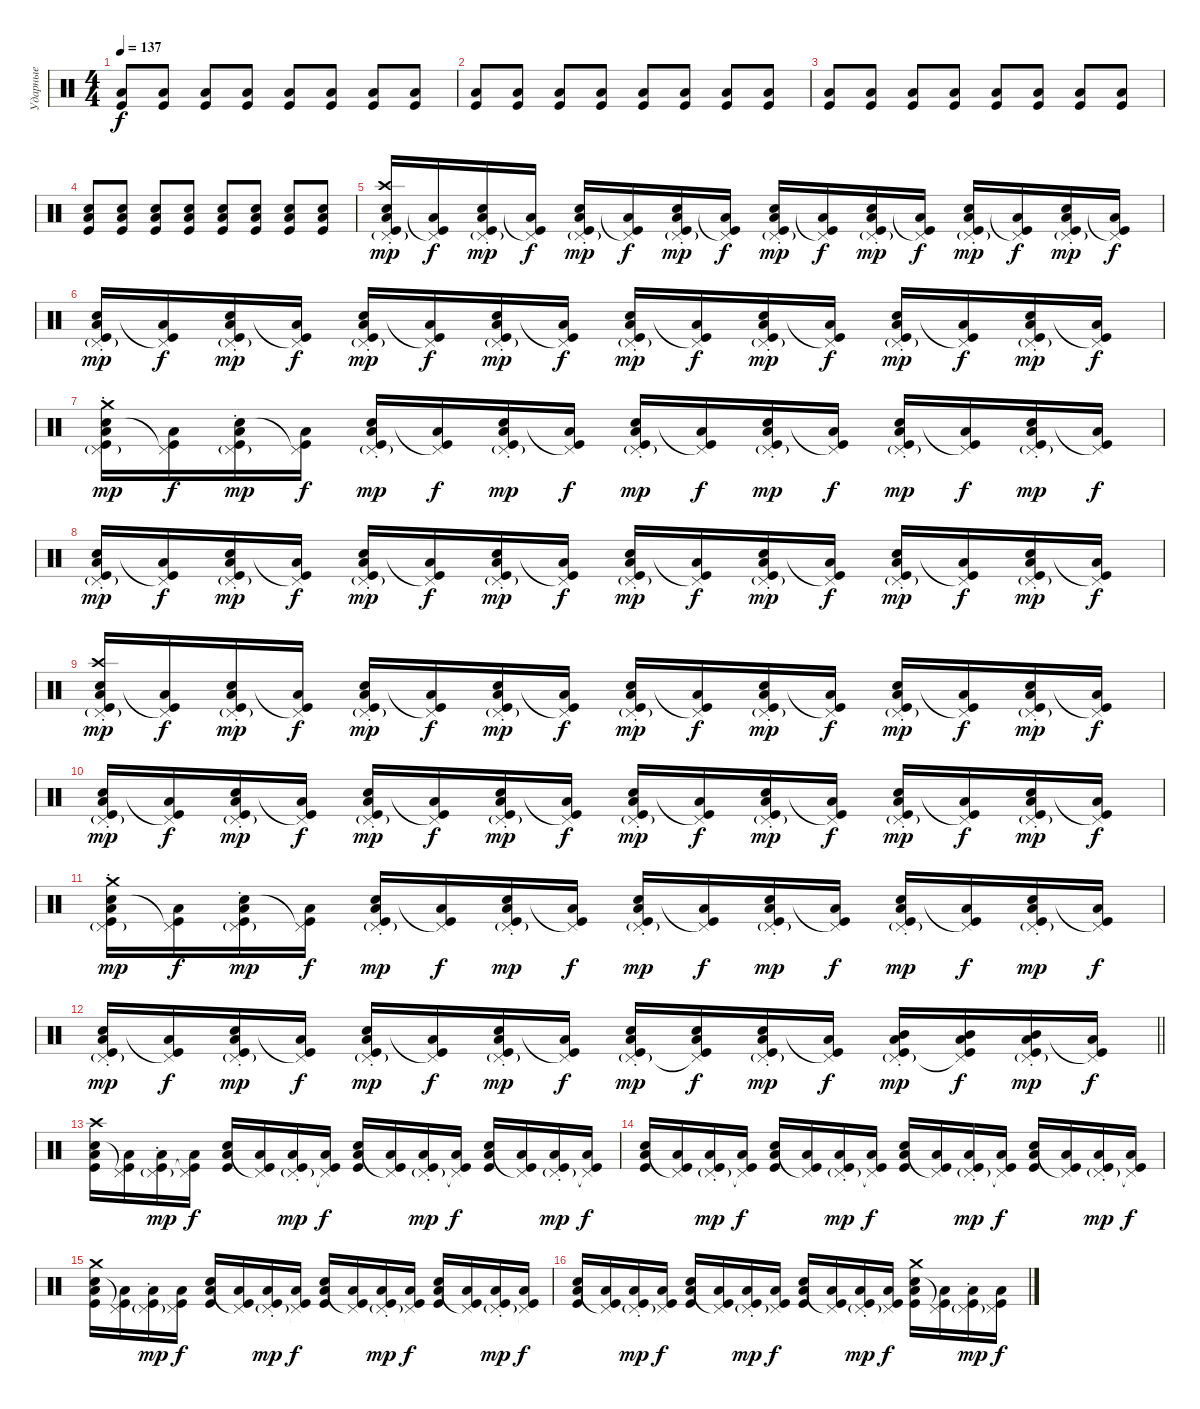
\track ("Ударные" "Ударные") {instrument percussion}
\staff {score}
\articulation defaults
\ts (4 4)
\tempo 137
\clef neutral
\ks c
("Kick (hit)" "Low Tom (hit)").8{dy f} ("Kick (hit)" "Low Tom (hit)").8 ("Kick (hit)" "Low Tom (hit)").8 ("Kick (hit)" "Low Tom (hit)").8 ("Kick (hit)" "Low Tom (hit)").8 ("Kick (hit)" "Low Tom (hit)").8 ("Kick (hit)" "Low Tom (hit)").8 ("Kick (hit)" "Low Tom (hit)").8 |
("Kick (hit)" "Low Tom (hit)").8 ("Kick (hit)" "Low Tom (hit)").8 ("Kick (hit)" "Low Tom (hit)").8 ("Kick (hit)" "Low Tom (hit)").8 ("Kick (hit)" "Low Tom (hit)").8 ("Kick (hit)" "Low Tom (hit)").8 ("Kick (hit)" "Low Tom (hit)").8 ("Kick (hit)" "Low Tom (hit)").8 |
("Kick (hit)" "Low Tom (hit)").8 ("Kick (hit)" "Low Tom (hit)").8 ("Kick (hit)" "Low Tom (hit)").8 ("Kick (hit)" "Low Tom (hit)").8 ("Kick (hit)" "Low Tom (hit)").8 ("Kick (hit)" "Low Tom (hit)").8 ("Kick (hit)" "Low Tom (hit)").8 ("Kick (hit)" "Low Tom (hit)").8 |
("Kick (hit)" "Low Tom (hit)" "Electric Snare (hit)").8 ("Kick (hit)" "Low Tom (hit)" "Electric Snare (hit)").8 ("Kick (hit)" "Low Tom (hit)" "Electric Snare (hit)").8 ("Kick (hit)" "Low Tom (hit)" "Electric Snare (hit)").8 ("Kick (hit)" "Low Tom (hit)" "Electric Snare (hit)").8 ("Kick (hit)" "Low Tom (hit)" "Electric Snare (hit)").8 ("Kick (hit)" "Low Tom (hit)" "Electric Snare (hit)").8 ("Kick (hit)" "Low Tom (hit)" "Electric Snare (hit)").8 |
("Kick (hit)" "Low Tom (hit)" "Electric Snare (hit)" "Crash high (hit)" "Pedal Hi-Hat (hit)"{g st}).16{dy mp} ("Kick (hit)" "Low Tom (hit)" "Pedal Hi-Hat (hit)"{t}).16{dy f} ("Kick (hit)" "Low Tom (hit)" "Electric Snare (hit)" "Pedal Hi-Hat (hit)"{g st}).16{dy mp} ("Kick (hit)" "Low Tom (hit)" "Pedal Hi-Hat (hit)"{t}).16{dy f} ("Kick (hit)" "Low Tom (hit)" "Electric Snare (hit)" "Pedal Hi-Hat (hit)"{g st}).16{dy mp} ("Kick (hit)" "Low Tom (hit)" "Pedal Hi-Hat (hit)"{t}).16{dy f} ("Kick (hit)" "Low Tom (hit)" "Electric Snare (hit)" "Pedal Hi-Hat (hit)"{g st}).16{dy mp} ("Kick (hit)" "Low Tom (hit)" "Pedal Hi-Hat (hit)"{t}).16{dy f} ("Kick (hit)" "Low Tom (hit)" "Electric Snare (hit)" "Pedal Hi-Hat (hit)"{g st}).16{dy mp} ("Kick (hit)" "Low Tom (hit)" "Pedal Hi-Hat (hit)"{t}).16{dy f} ("Kick (hit)" "Low Tom (hit)" "Electric Snare (hit)" "Pedal Hi-Hat (hit)"{g st}).16{dy mp} ("Kick (hit)" "Low Tom (hit)" "Pedal Hi-Hat (hit)"{t}).16{dy f} ("Kick (hit)" "Low Tom (hit)" "Electric Snare (hit)" "Pedal Hi-Hat (hit)"{g st}).16{dy mp} ("Kick (hit)" "Low Tom (hit)" "Pedal Hi-Hat (hit)"{t}).16{dy f} ("Kick (hit)" "Low Tom (hit)" "Electric Snare (hit)" "Pedal Hi-Hat (hit)"{g st}).16{dy mp} ("Kick (hit)" "Low Tom (hit)" "Pedal Hi-Hat (hit)"{t}).16{dy f} |
("Kick (hit)" "Low Tom (hit)" "Electric Snare (hit)" "Pedal Hi-Hat (hit)"{g st}).16{dy mp} ("Kick (hit)" "Low Tom (hit)" "Pedal Hi-Hat (hit)"{t}).16{dy f} ("Kick (hit)" "Low Tom (hit)" "Electric Snare (hit)" "Pedal Hi-Hat (hit)"{g st}).16{dy mp} ("Kick (hit)" "Low Tom (hit)" "Pedal Hi-Hat (hit)"{t}).16{dy f} ("Kick (hit)" "Low Tom (hit)" "Electric Snare (hit)" "Pedal Hi-Hat (hit)"{g st}).16{dy mp} ("Kick (hit)" "Low Tom (hit)" "Pedal Hi-Hat (hit)"{t}).16{dy f} ("Kick (hit)" "Low Tom (hit)" "Electric Snare (hit)" "Pedal Hi-Hat (hit)"{g st}).16{dy mp} ("Kick (hit)" "Low Tom (hit)" "Pedal Hi-Hat (hit)"{t}).16{dy f} ("Kick (hit)" "Low Tom (hit)" "Electric Snare (hit)" "Pedal Hi-Hat (hit)"{g st}).16{dy mp} ("Kick (hit)" "Low Tom (hit)" "Pedal Hi-Hat (hit)"{t}).16{dy f} ("Kick (hit)" "Low Tom (hit)" "Electric Snare (hit)" "Pedal Hi-Hat (hit)"{g st}).16{dy mp} ("Kick (hit)" "Low Tom (hit)" "Pedal Hi-Hat (hit)"{t}).16{dy f} ("Kick (hit)" "Low Tom (hit)" "Electric Snare (hit)" "Pedal Hi-Hat (hit)"{g st}).16{dy mp} ("Kick (hit)" "Low Tom (hit)" "Pedal Hi-Hat (hit)"{t}).16{dy f} ("Kick (hit)" "Low Tom (hit)" "Electric Snare (hit)" "Pedal Hi-Hat (hit)"{g st}).16{dy mp} ("Kick (hit)" "Low Tom (hit)" "Pedal Hi-Hat (hit)"{t}).16{dy f} |
("Kick (hit)" "Low Tom (hit)" "Electric Snare (hit)" "Crash medium (hit)" "Pedal Hi-Hat (hit)"{g st}).16{dy mp} ("Kick (hit)" "Low Tom (hit)" "Pedal Hi-Hat (hit)"{t}).16{dy f} ("Kick (hit)" "Low Tom (hit)" "Electric Snare (hit)" "Pedal Hi-Hat (hit)"{g st}).16{dy mp} ("Kick (hit)" "Low Tom (hit)" "Pedal Hi-Hat (hit)"{t}).16{dy f} ("Kick (hit)" "Low Tom (hit)" "Electric Snare (hit)" "Pedal Hi-Hat (hit)"{g st}).16{dy mp} ("Kick (hit)" "Low Tom (hit)" "Pedal Hi-Hat (hit)"{t}).16{dy f} ("Kick (hit)" "Low Tom (hit)" "Electric Snare (hit)" "Pedal Hi-Hat (hit)"{g st}).16{dy mp} ("Kick (hit)" "Low Tom (hit)" "Pedal Hi-Hat (hit)"{t}).16{dy f} ("Kick (hit)" "Low Tom (hit)" "Electric Snare (hit)" "Pedal Hi-Hat (hit)"{g st}).16{dy mp} ("Kick (hit)" "Low Tom (hit)" "Pedal Hi-Hat (hit)"{t}).16{dy f} ("Kick (hit)" "Low Tom (hit)" "Electric Snare (hit)" "Pedal Hi-Hat (hit)"{g st}).16{dy mp} ("Kick (hit)" "Low Tom (hit)" "Pedal Hi-Hat (hit)"{t}).16{dy f} ("Kick (hit)" "Low Tom (hit)" "Electric Snare (hit)" "Pedal Hi-Hat (hit)"{g st}).16{dy mp} ("Kick (hit)" "Low Tom (hit)" "Pedal Hi-Hat (hit)"{t}).16{dy f} ("Kick (hit)" "Low Tom (hit)" "Electric Snare (hit)" "Pedal Hi-Hat (hit)"{g st}).16{dy mp} ("Kick (hit)" "Low Tom (hit)" "Pedal Hi-Hat (hit)"{t}).16{dy f} |
("Kick (hit)" "Low Tom (hit)" "Electric Snare (hit)" "Pedal Hi-Hat (hit)"{g st}).16{dy mp} ("Kick (hit)" "Low Tom (hit)" "Pedal Hi-Hat (hit)"{t}).16{dy f} ("Kick (hit)" "Low Tom (hit)" "Electric Snare (hit)" "Pedal Hi-Hat (hit)"{g st}).16{dy mp} ("Kick (hit)" "Low Tom (hit)" "Pedal Hi-Hat (hit)"{t}).16{dy f} ("Kick (hit)" "Low Tom (hit)" "Electric Snare (hit)" "Pedal Hi-Hat (hit)"{g st}).16{dy mp} ("Kick (hit)" "Low Tom (hit)" "Pedal Hi-Hat (hit)"{t}).16{dy f} ("Kick (hit)" "Low Tom (hit)" "Electric Snare (hit)" "Pedal Hi-Hat (hit)"{g st}).16{dy mp} ("Kick (hit)" "Low Tom (hit)" "Pedal Hi-Hat (hit)"{t}).16{dy f} ("Kick (hit)" "Low Tom (hit)" "Electric Snare (hit)" "Pedal Hi-Hat (hit)"{g st}).16{dy mp} ("Kick (hit)" "Low Tom (hit)" "Pedal Hi-Hat (hit)"{t}).16{dy f} ("Kick (hit)" "Low Tom (hit)" "Electric Snare (hit)" "Pedal Hi-Hat (hit)"{g st}).16{dy mp} ("Kick (hit)" "Low Tom (hit)" "Pedal Hi-Hat (hit)"{t}).16{dy f} ("Kick (hit)" "Low Tom (hit)" "Electric Snare (hit)" "Pedal Hi-Hat (hit)"{g st}).16{dy mp} ("Kick (hit)" "Low Tom (hit)" "Pedal Hi-Hat (hit)"{t}).16{dy f} ("Kick (hit)" "Low Tom (hit)" "Electric Snare (hit)" "Pedal Hi-Hat (hit)"{g st}).16{dy mp} ("Kick (hit)" "Low Tom (hit)" "Pedal Hi-Hat (hit)"{t}).16{dy f} |
("Kick (hit)" "Low Tom (hit)" "Electric Snare (hit)" "Crash high (hit)" "Pedal Hi-Hat (hit)"{g st}).16{dy mp} ("Kick (hit)" "Low Tom (hit)" "Pedal Hi-Hat (hit)"{t}).16{dy f} ("Kick (hit)" "Low Tom (hit)" "Electric Snare (hit)" "Pedal Hi-Hat (hit)"{g st}).16{dy mp} ("Kick (hit)" "Low Tom (hit)" "Pedal Hi-Hat (hit)"{t}).16{dy f} ("Kick (hit)" "Low Tom (hit)" "Electric Snare (hit)" "Pedal Hi-Hat (hit)"{g st}).16{dy mp} ("Kick (hit)" "Low Tom (hit)" "Pedal Hi-Hat (hit)"{t}).16{dy f} ("Kick (hit)" "Low Tom (hit)" "Electric Snare (hit)" "Pedal Hi-Hat (hit)"{g st}).16{dy mp} ("Kick (hit)" "Low Tom (hit)" "Pedal Hi-Hat (hit)"{t}).16{dy f} ("Kick (hit)" "Low Tom (hit)" "Electric Snare (hit)" "Pedal Hi-Hat (hit)"{g st}).16{dy mp} ("Kick (hit)" "Low Tom (hit)" "Pedal Hi-Hat (hit)"{t}).16{dy f} ("Kick (hit)" "Low Tom (hit)" "Electric Snare (hit)" "Pedal Hi-Hat (hit)"{g st}).16{dy mp} ("Kick (hit)" "Low Tom (hit)" "Pedal Hi-Hat (hit)"{t}).16{dy f} ("Kick (hit)" "Low Tom (hit)" "Electric Snare (hit)" "Pedal Hi-Hat (hit)"{g st}).16{dy mp} ("Kick (hit)" "Low Tom (hit)" "Pedal Hi-Hat (hit)"{t}).16{dy f} ("Kick (hit)" "Low Tom (hit)" "Electric Snare (hit)" "Pedal Hi-Hat (hit)"{g st}).16{dy mp} ("Kick (hit)" "Low Tom (hit)" "Pedal Hi-Hat (hit)"{t}).16{dy f} |
("Kick (hit)" "Low Tom (hit)" "Electric Snare (hit)" "Pedal Hi-Hat (hit)"{g st}).16{dy mp} ("Kick (hit)" "Low Tom (hit)" "Pedal Hi-Hat (hit)"{t}).16{dy f} ("Kick (hit)" "Low Tom (hit)" "Electric Snare (hit)" "Pedal Hi-Hat (hit)"{g st}).16{dy mp} ("Kick (hit)" "Low Tom (hit)" "Pedal Hi-Hat (hit)"{t}).16{dy f} ("Kick (hit)" "Low Tom (hit)" "Electric Snare (hit)" "Pedal Hi-Hat (hit)"{g st}).16{dy mp} ("Kick (hit)" "Low Tom (hit)" "Pedal Hi-Hat (hit)"{t}).16{dy f} ("Kick (hit)" "Low Tom (hit)" "Electric Snare (hit)" "Pedal Hi-Hat (hit)"{g st}).16{dy mp} ("Kick (hit)" "Low Tom (hit)" "Pedal Hi-Hat (hit)"{t}).16{dy f} ("Kick (hit)" "Low Tom (hit)" "Electric Snare (hit)" "Pedal Hi-Hat (hit)"{g st}).16{dy mp} ("Kick (hit)" "Low Tom (hit)" "Pedal Hi-Hat (hit)"{t}).16{dy f} ("Kick (hit)" "Low Tom (hit)" "Electric Snare (hit)" "Pedal Hi-Hat (hit)"{g st}).16{dy mp} ("Kick (hit)" "Low Tom (hit)" "Pedal Hi-Hat (hit)"{t}).16{dy f} ("Kick (hit)" "Low Tom (hit)" "Electric Snare (hit)" "Pedal Hi-Hat (hit)"{g st}).16{dy mp} ("Kick (hit)" "Low Tom (hit)" "Pedal Hi-Hat (hit)"{t}).16{dy f} ("Kick (hit)" "Low Tom (hit)" "Electric Snare (hit)" "Pedal Hi-Hat (hit)"{g st}).16{dy mp} ("Kick (hit)" "Low Tom (hit)" "Pedal Hi-Hat (hit)"{t}).16{dy f} |
("Kick (hit)" "Low Tom (hit)" "Electric Snare (hit)" "Crash medium (hit)" "Pedal Hi-Hat (hit)"{g st}).16{dy mp} ("Kick (hit)" "Low Tom (hit)" "Pedal Hi-Hat (hit)"{t}).16{dy f} ("Kick (hit)" "Low Tom (hit)" "Electric Snare (hit)" "Pedal Hi-Hat (hit)"{g st}).16{dy mp} ("Kick (hit)" "Low Tom (hit)" "Pedal Hi-Hat (hit)"{t}).16{dy f} ("Kick (hit)" "Low Tom (hit)" "Electric Snare (hit)" "Pedal Hi-Hat (hit)"{g st}).16{dy mp} ("Kick (hit)" "Low Tom (hit)" "Pedal Hi-Hat (hit)"{t}).16{dy f} ("Kick (hit)" "Low Tom (hit)" "Electric Snare (hit)" "Pedal Hi-Hat (hit)"{g st}).16{dy mp} ("Kick (hit)" "Low Tom (hit)" "Pedal Hi-Hat (hit)"{t}).16{dy f} ("Kick (hit)" "Low Tom (hit)" "Electric Snare (hit)" "Pedal Hi-Hat (hit)"{g st}).16{dy mp} ("Kick (hit)" "Low Tom (hit)" "Pedal Hi-Hat (hit)"{t}).16{dy f} ("Kick (hit)" "Low Tom (hit)" "Electric Snare (hit)" "Pedal Hi-Hat (hit)"{g st}).16{dy mp} ("Kick (hit)" "Low Tom (hit)" "Pedal Hi-Hat (hit)"{t}).16{dy f} ("Kick (hit)" "Low Tom (hit)" "Electric Snare (hit)" "Pedal Hi-Hat (hit)"{g st}).16{dy mp} ("Kick (hit)" "Low Tom (hit)" "Pedal Hi-Hat (hit)"{t}).16{dy f} ("Kick (hit)" "Low Tom (hit)" "Electric Snare (hit)" "Pedal Hi-Hat (hit)"{g st}).16{dy mp} ("Kick (hit)" "Low Tom (hit)" "Pedal Hi-Hat (hit)"{t}).16{dy f} |
\barLineRight lightlight
("Kick (hit)" "Low Tom (hit)" "Electric Snare (hit)" "Pedal Hi-Hat (hit)"{g st}).16{dy mp} ("Kick (hit)" "Low Tom (hit)" "Pedal Hi-Hat (hit)"{t}).16{dy f} ("Kick (hit)" "Low Tom (hit)" "Electric Snare (hit)" "Pedal Hi-Hat (hit)"{g st}).16{dy mp} ("Kick (hit)" "Low Tom (hit)" "Pedal Hi-Hat (hit)"{t}).16{dy f} ("Kick (hit)" "Low Tom (hit)" "Electric Snare (hit)" "Pedal Hi-Hat (hit)"{g st}).16{dy mp} ("Kick (hit)" "Low Tom (hit)" "Pedal Hi-Hat (hit)"{t}).16{dy f} ("Kick (hit)" "Low Tom (hit)" "Electric Snare (hit)" "Pedal Hi-Hat (hit)"{g st}).16{dy mp} ("Kick (hit)" "Low Tom (hit)" "Pedal Hi-Hat (hit)"{t}).16{dy f} ("Kick (hit)" "Low Tom (hit)" "Electric Snare (hit)" "Pedal Hi-Hat (hit)"{g st}).16{dy mp} ("Kick (hit)" "Low Tom (hit)" "Electric Snare (hit)" "Pedal Hi-Hat (hit)"{t}).16{dy f} ("Kick (hit)" "Low Tom (hit)" "Electric Snare (hit)" "Pedal Hi-Hat (hit)"{g st}).16{dy mp} ("Kick (hit)" "Low Tom (hit)" "Pedal Hi-Hat (hit)"{t}).16{dy f} ("Kick (hit)" "Low Tom (hit)" "Mid Tom (hit)" "Pedal Hi-Hat (hit)"{g st}).16{dy mp} ("Kick (hit)" "Low Tom (hit)" "Mid Tom (hit)" "Pedal Hi-Hat (hit)"{t}).16{dy f} ("Kick (hit)" "Low Tom (hit)" "Mid Tom (hit)" "Pedal Hi-Hat (hit)"{g st}).16{dy mp} ("Kick (hit)" "Low Tom (hit)" "Pedal Hi-Hat (hit)"{t}).16{dy f} |
("Kick (hit)" "Low Tom (hit)" "Electric Snare (hit)" "Crash high (hit)").16 ("Kick (hit)" "Low Tom (hit)" "Pedal Hi-Hat (hit)"{t}).16 ("Kick (hit)" "Low Tom (hit)" "Pedal Hi-Hat (hit)"{g st}).16{dy mp} ("Kick (hit)" "Low Tom (hit)" "Pedal Hi-Hat (hit)"{t}).16{dy f} ("Kick (hit)" "Low Tom (hit)" "Electric Snare (hit)").16 ("Kick (hit)" "Low Tom (hit)" "Pedal Hi-Hat (hit)"{t}).16 ("Kick (hit)" "Low Tom (hit)" "Pedal Hi-Hat (hit)"{g st}).16{dy mp} ("Kick (hit)" "Low Tom (hit)" "Pedal Hi-Hat (hit)"{t}).16{dy f} ("Kick (hit)" "Low Tom (hit)" "Electric Snare (hit)").16 ("Kick (hit)" "Low Tom (hit)" "Pedal Hi-Hat (hit)"{t}).16 ("Kick (hit)" "Low Tom (hit)" "Pedal Hi-Hat (hit)"{g st}).16{dy mp} ("Kick (hit)" "Low Tom (hit)" "Pedal Hi-Hat (hit)"{t}).16{dy f} ("Kick (hit)" "Low Tom (hit)" "Electric Snare (hit)").16 ("Kick (hit)" "Low Tom (hit)" "Pedal Hi-Hat (hit)"{t}).16 ("Kick (hit)" "Low Tom (hit)" "Pedal Hi-Hat (hit)"{g st}).16{dy mp} ("Kick (hit)" "Low Tom (hit)" "Pedal Hi-Hat (hit)"{t}).16{dy f} |
("Kick (hit)" "Low Tom (hit)" "Electric Snare (hit)").16 ("Kick (hit)" "Low Tom (hit)" "Pedal Hi-Hat (hit)"{t}).16 ("Kick (hit)" "Low Tom (hit)" "Pedal Hi-Hat (hit)"{g st}).16{dy mp} ("Kick (hit)" "Low Tom (hit)" "Pedal Hi-Hat (hit)"{t}).16{dy f} ("Kick (hit)" "Low Tom (hit)" "Electric Snare (hit)").16 ("Kick (hit)" "Low Tom (hit)" "Pedal Hi-Hat (hit)"{t}).16 ("Kick (hit)" "Low Tom (hit)" "Pedal Hi-Hat (hit)"{g st}).16{dy mp} ("Kick (hit)" "Low Tom (hit)" "Pedal Hi-Hat (hit)"{t}).16{dy f} ("Kick (hit)" "Low Tom (hit)" "Electric Snare (hit)").16 ("Kick (hit)" "Low Tom (hit)" "Pedal Hi-Hat (hit)"{t}).16 ("Kick (hit)" "Low Tom (hit)" "Pedal Hi-Hat (hit)"{g st}).16{dy mp} ("Kick (hit)" "Low Tom (hit)" "Pedal Hi-Hat (hit)"{t}).16{dy f} ("Kick (hit)" "Low Tom (hit)" "Electric Snare (hit)").16 ("Kick (hit)" "Low Tom (hit)" "Pedal Hi-Hat (hit)"{t}).16 ("Kick (hit)" "Low Tom (hit)" "Pedal Hi-Hat (hit)"{g st}).16{dy mp} ("Kick (hit)" "Low Tom (hit)" "Pedal Hi-Hat (hit)"{t}).16{dy f} |
("Kick (hit)" "Low Tom (hit)" "Electric Snare (hit)" "Crash medium (hit)").16 ("Kick (hit)" "Low Tom (hit)" "Pedal Hi-Hat (hit)"{t}).16 ("Kick (hit)" "Low Tom (hit)" "Pedal Hi-Hat (hit)"{g st}).16{dy mp} ("Kick (hit)" "Low Tom (hit)" "Pedal Hi-Hat (hit)"{t}).16{dy f} ("Kick (hit)" "Low Tom (hit)" "Electric Snare (hit)").16 ("Kick (hit)" "Low Tom (hit)" "Pedal Hi-Hat (hit)"{t}).16 ("Kick (hit)" "Low Tom (hit)" "Pedal Hi-Hat (hit)"{g st}).16{dy mp} ("Kick (hit)" "Low Tom (hit)" "Pedal Hi-Hat (hit)"{t}).16{dy f} ("Kick (hit)" "Low Tom (hit)" "Electric Snare (hit)").16 ("Kick (hit)" "Low Tom (hit)" "Pedal Hi-Hat (hit)"{t}).16 ("Kick (hit)" "Low Tom (hit)" "Pedal Hi-Hat (hit)"{g st}).16{dy mp} ("Kick (hit)" "Low Tom (hit)" "Pedal Hi-Hat (hit)"{t}).16{dy f} ("Kick (hit)" "Low Tom (hit)" "Electric Snare (hit)").16 ("Kick (hit)" "Low Tom (hit)" "Pedal Hi-Hat (hit)"{t}).16 ("Kick (hit)" "Low Tom (hit)" "Pedal Hi-Hat (hit)"{g st}).16{dy mp} ("Kick (hit)" "Low Tom (hit)" "Pedal Hi-Hat (hit)"{t}).16{dy f} |
("Kick (hit)" "Low Tom (hit)" "Electric Snare (hit)").16 ("Kick (hit)" "Low Tom (hit)" "Pedal Hi-Hat (hit)"{t}).16 ("Kick (hit)" "Low Tom (hit)" "Pedal Hi-Hat (hit)"{g st}).16{dy mp} ("Kick (hit)" "Low Tom (hit)" "Pedal Hi-Hat (hit)"{t}).16{dy f} ("Kick (hit)" "Low Tom (hit)" "Electric Snare (hit)").16 ("Kick (hit)" "Low Tom (hit)" "Pedal Hi-Hat (hit)"{t}).16 ("Kick (hit)" "Low Tom (hit)" "Pedal Hi-Hat (hit)"{g st}).16{dy mp} ("Kick (hit)" "Low Tom (hit)" "Pedal Hi-Hat (hit)"{t}).16{dy f} ("Kick (hit)" "Low Tom (hit)" "Electric Snare (hit)").16 ("Kick (hit)" "Low Tom (hit)" "Pedal Hi-Hat (hit)"{t}).16 ("Kick (hit)" "Low Tom (hit)" "Pedal Hi-Hat (hit)"{g st}).16{dy mp} ("Kick (hit)" "Low Tom (hit)" "Pedal Hi-Hat (hit)"{t}).16{dy f} ("Kick (hit)" "Low Tom (hit)" "Electric Snare (hit)" "Crash medium (hit)").16 ("Kick (hit)" "Low Tom (hit)" "Pedal Hi-Hat (hit)"{t}).16 ("Kick (hit)" "Low Tom (hit)" "Pedal Hi-Hat (hit)"{g st}).16{dy mp} ("Kick (hit)" "Low Tom (hit)" "Pedal Hi-Hat (hit)"{t}).16{dy f}
